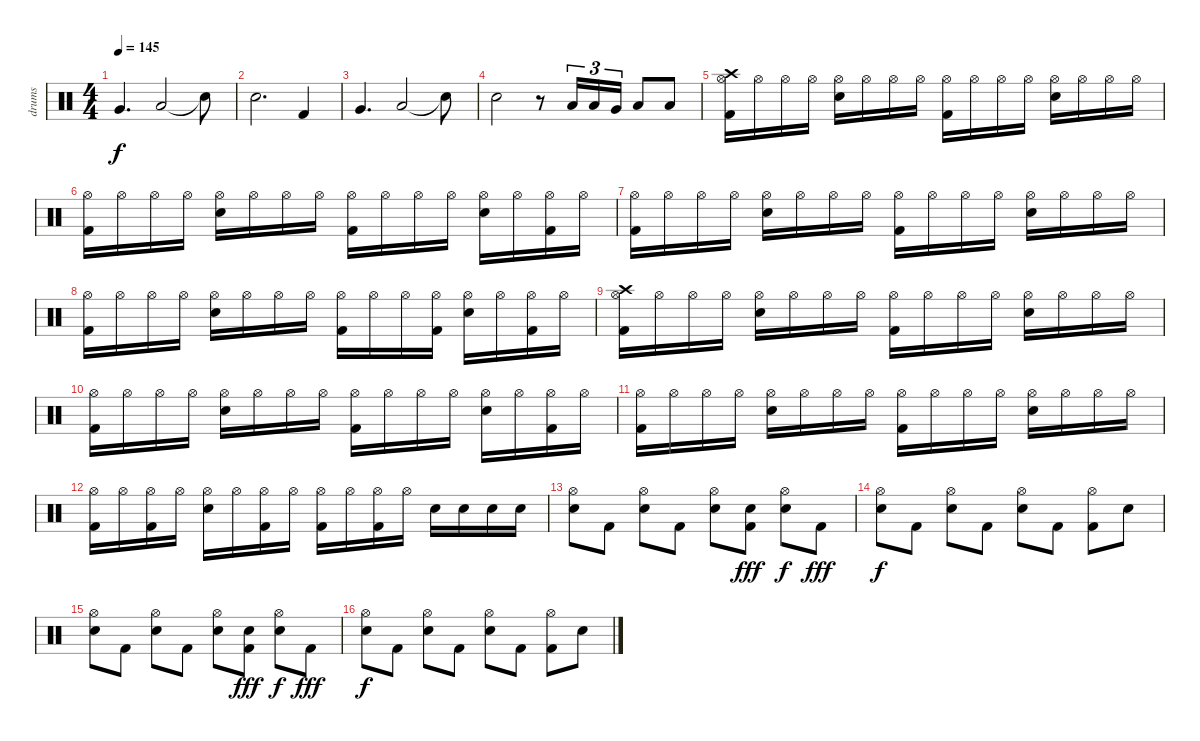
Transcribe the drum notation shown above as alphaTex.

\track ("drums" "drums") {instrument percussion}
\staff {score}
\articulation defaults
\ts (4 4)
\tempo 145
\clef neutral
\ks c "Very Low Tom (hit)".4{d dy f} "Low Floor Tom (hit)".2 "Snare (hit)"{t}.8
|
"Snare (hit) 2".2{d} "Kick (hit) 2".4 |
"Very Low Tom (hit)".4{d} "Low Floor Tom (hit)".2 "Snare (hit)"{t}.8 |
"Snare (hit) 2".2 r.8 "Low Tom (hit)".16{tu (3 2)} "Low Tom (hit)".16{tu (3 2)} "Very Low Tom (hit)".16{tu (3 2)} "Low Floor Tom (hit)".8 "Low Floor Tom (hit)".8 |
("Kick (hit) 2" "Crash high (hit)" "Hi-Hat (open)").16 "Hi-Hat (open)".16 "Hi-Hat (open)".16 "Hi-Hat (open)".16 ("Snare (hit) 2" "Hi-Hat (open)").16 "Hi-Hat (open)".16 "Hi-Hat (open)".16 "Hi-Hat (open)".16 ("Kick (hit) 2" "Hi-Hat (open)").16 "Hi-Hat (open)".16 "Hi-Hat (open)".16 "Hi-Hat (open)".16 ("Snare (hit) 2" "Hi-Hat (open)").16 "Hi-Hat (open)".16 "Hi-Hat (open)".16 "Hi-Hat (open)".16 |
("Kick (hit) 2" "Hi-Hat (open)").16 "Hi-Hat (open)".16 "Hi-Hat (open)".16 "Hi-Hat (open)".16 ("Snare (hit) 2" "Hi-Hat (open)").16 "Hi-Hat (open)".16 "Hi-Hat (open)".16 "Hi-Hat (open)".16 ("Kick (hit) 2" "Hi-Hat (open)").16 "Hi-Hat (open)".16 "Hi-Hat (open)".16 "Hi-Hat (open)".16 ("Snare (hit) 2" "Hi-Hat (open)").16 "Hi-Hat (open)".16 ("Kick (hit) 2" "Hi-Hat (open)").16 "Hi-Hat (open)".16 |
("Kick (hit) 2" "Hi-Hat (open)").16 "Hi-Hat (open)".16 "Hi-Hat (open)".16 "Hi-Hat (open)".16 ("Snare (hit) 2" "Hi-Hat (open)").16 "Hi-Hat (open)".16 "Hi-Hat (open)".16 "Hi-Hat (open)".16 ("Kick (hit) 2" "Hi-Hat (open)").16 "Hi-Hat (open)".16 "Hi-Hat (open)".16 "Hi-Hat (open)".16 ("Snare (hit) 2" "Hi-Hat (open)").16 "Hi-Hat (open)".16 "Hi-Hat (open)".16 "Hi-Hat (open)".16 |
("Kick (hit) 2" "Hi-Hat (open)").16 "Hi-Hat (open)".16 "Hi-Hat (open)".16 "Hi-Hat (open)".16 ("Snare (hit) 2" "Hi-Hat (open)").16 "Hi-Hat (open)".16 "Hi-Hat (open)".16 "Hi-Hat (open)".16 ("Kick (hit) 2" "Hi-Hat (open)").16 "Hi-Hat (open)".16 "Hi-Hat (open)".16 ("Kick (hit) 2" "Hi-Hat (open)").16 ("Snare (hit) 2" "Hi-Hat (open)").16 "Hi-Hat (open)".16 ("Kick (hit) 2" "Hi-Hat (open)").16 "Hi-Hat (open)".16 |
("Kick (hit) 2" "Crash high (hit)" "Hi-Hat (open)").16 "Hi-Hat (open)".16 "Hi-Hat (open)".16 "Hi-Hat (open)".16 ("Snare (hit) 2" "Hi-Hat (open)").16 "Hi-Hat (open)".16 "Hi-Hat (open)".16 "Hi-Hat (open)".16 ("Kick (hit) 2" "Hi-Hat (open)").16 "Hi-Hat (open)".16 "Hi-Hat (open)".16 "Hi-Hat (open)".16 ("Snare (hit) 2" "Hi-Hat (open)").16 "Hi-Hat (open)".16 "Hi-Hat (open)".16 "Hi-Hat (open)".16 |
("Kick (hit) 2" "Hi-Hat (open)").16 "Hi-Hat (open)".16 "Hi-Hat (open)".16 "Hi-Hat (open)".16 ("Snare (hit) 2" "Hi-Hat (open)").16 "Hi-Hat (open)".16 "Hi-Hat (open)".16 "Hi-Hat (open)".16 ("Kick (hit) 2" "Hi-Hat (open)").16 "Hi-Hat (open)".16 "Hi-Hat (open)".16 "Hi-Hat (open)".16 ("Snare (hit) 2" "Hi-Hat (open)").16 "Hi-Hat (open)".16 ("Kick (hit) 2" "Hi-Hat (open)").16 "Hi-Hat (open)".16 |
("Kick (hit) 2" "Hi-Hat (open)").16 "Hi-Hat (open)".16 "Hi-Hat (open)".16 "Hi-Hat (open)".16 ("Snare (hit) 2" "Hi-Hat (open)").16 "Hi-Hat (open)".16 "Hi-Hat (open)".16 "Hi-Hat (open)".16 ("Kick (hit) 2" "Hi-Hat (open)").16 "Hi-Hat (open)".16 "Hi-Hat (open)".16 "Hi-Hat (open)".16 ("Snare (hit) 2" "Hi-Hat (open)").16 "Hi-Hat (open)".16 "Hi-Hat (open)".16 "Hi-Hat (open)".16 |
("Kick (hit) 2" "Hi-Hat (open)").16 "Hi-Hat (open)".16 ("Kick (hit) 2" "Hi-Hat (open)").16 "Hi-Hat (open)".16 ("Snare (hit) 2" "Hi-Hat (open)").16 "Hi-Hat (open)".16 ("Kick (hit) 2" "Hi-Hat (open)").16 "Hi-Hat (open)".16 ("Kick (hit) 2" "Hi-Hat (open)").16 "Hi-Hat (open)".16 ("Kick (hit) 2" "Hi-Hat (open)").16 "Hi-Hat (open)".16 "Snare (hit) 2".16 "Snare (hit) 2".16 "Snare (hit) 2".16 "Snare (hit) 2".16 |
("Hi-Hat (open)" "Snare (hit) 2").8 "Kick (hit) 2".8 ("Hi-Hat (open)" "Snare (hit) 2").8 "Kick (hit) 2".8 ("Hi-Hat (open)" "Snare (hit) 2").8 ("Snare (hit) 2" "Kick (hit) 2").8{dy fff} ("Hi-Hat (open)" "Snare (hit) 2").8{dy f} "Kick (hit) 2".8{dy fff} |
("Hi-Hat (open)" "Snare (hit) 2").8{dy f} "Kick (hit) 2".8 ("Hi-Hat (open)" "Snare (hit) 2").8 "Kick (hit) 2".8 ("Hi-Hat (open)" "Snare (hit) 2").8 "Kick (hit) 2".8 ("Hi-Hat (open)" "Kick (hit) 2").8 "Snare (hit) 2".8 |
("Hi-Hat (open)" "Snare (hit) 2").8 "Kick (hit) 2".8 ("Hi-Hat (open)" "Snare (hit) 2").8 "Kick (hit) 2".8 ("Hi-Hat (open)" "Snare (hit) 2").8 ("Snare (hit) 2" "Kick (hit) 2").8{dy fff} ("Hi-Hat (open)" "Snare (hit) 2").8{dy f} "Kick (hit) 2".8{dy fff} |
("Hi-Hat (open)" "Snare (hit) 2").8{dy f} "Kick (hit) 2".8 ("Hi-Hat (open)" "Snare (hit) 2").8 "Kick (hit) 2".8 ("Hi-Hat (open)" "Snare (hit) 2").8 "Kick (hit) 2".8 ("Hi-Hat (open)" "Kick (hit) 2").8 "Snare (hit) 2".8
